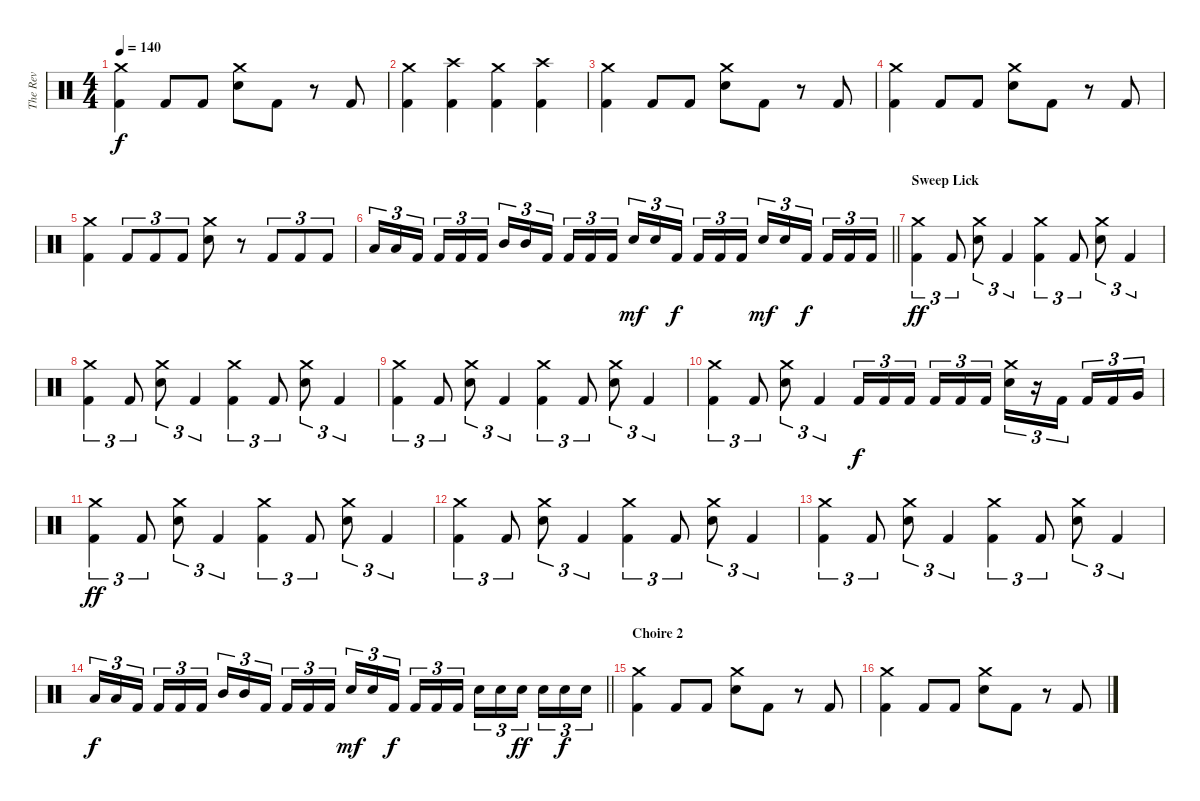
\track ("The Rev" "The Rev") {instrument percussion}
\staff {score}
\articulation defaults
\ts (4 4)
\tempo 140
\clef neutral
\ks c
("Crash medium (hit)" "Kick (hit) 2").4{dy f} "Kick (hit) 2".8 "Kick (hit) 2".8 ("Crash medium (hit)" "Snare (hit) 2").8 "Kick (hit) 2".8 r.8 "Kick (hit) 2".8 |
("Crash medium (hit)" "Kick (hit) 2").4 ("Crash high (hit)" "Kick (hit) 2").4 ("Crash medium (hit)" "Kick (hit) 2").4 ("Crash high (hit)" "Kick (hit) 2").4 |
("Crash medium (hit)" "Kick (hit) 2").4 "Kick (hit) 2".8 "Kick (hit) 2".8 ("Crash medium (hit)" "Snare (hit) 2").8 "Kick (hit) 2".8 r.8 "Kick (hit) 2".8 |
("Crash medium (hit)" "Kick (hit) 2").4 "Kick (hit) 2".8 "Kick (hit) 2".8 ("Crash medium (hit)" "Snare (hit) 2").8 "Kick (hit) 2".8 r.8 "Kick (hit) 2".8 |
("Crash medium (hit)" "Kick (hit) 2").4 "Kick (hit) 2".8{tu (3 2)} "Kick (hit) 2".8{tu (3 2)} "Kick (hit) 2".8{tu (3 2)} ("Crash medium (hit)" "Snare (hit) 2").8 r.8 "Kick (hit) 2".8{tu (3 2)} "Kick (hit) 2".8{tu (3 2)} "Kick (hit) 2".8{tu (3 2)} |
\barLineRight lightlight "Low Tom (hit)".16{tu (3 2)} "Low Tom (hit)".16{tu (3 2)} "Kick (hit) 2".16{tu (3 2) beam splitsecondary} "Kick (hit) 2".16{tu (3 2)} "Kick (hit) 2".16{tu (3 2)} "Kick (hit) 2".16{tu (3 2)} "Mid Tom (hit)".16{tu (3 2)} "Mid Tom (hit)".16{tu (3 2)} "Kick (hit) 2".16{tu (3 2) beam splitsecondary} "Kick (hit) 2".16{tu (3 2)} "Kick (hit) 2".16{tu (3 2)} "Kick (hit) 2".16{tu (3 2)} "Snare (hit) 2".16{tu (3 2) dy mf} "Snare (hit) 2".16{tu (3 2)} "Kick (hit) 2".16{tu (3 2) dy f beam splitsecondary} "Kick (hit) 2".16{tu (3 2)} "Kick (hit) 2".16{tu (3 2)} "Kick (hit) 2".16{tu (3 2)} "Snare (hit) 2".16{tu (3 2) dy mf} "Snare (hit) 2".16{tu (3 2)} "Kick (hit) 2".16{tu (3 2) dy f beam splitsecondary} "Kick (hit) 2".16{tu (3 2)} "Kick (hit) 2".16{tu (3 2)} "Kick (hit) 2".16{tu (3 2)}
|
\section ("" "Sweep Lick")
("Crash medium (hit)" "Kick (hit) 2").4{tu (3 2) dy ff} "Kick (hit) 2".8{tu (3 2)} ("Crash medium (hit)" "Snare (hit) 2").8{tu (3 2)} "Kick (hit) 2".4{tu (3 2)} ("Crash medium (hit)" "Kick (hit) 2").4{tu (3 2)} "Kick (hit) 2".8{tu (3 2)} ("Crash medium (hit)" "Snare (hit) 2").8{tu (3 2)} "Kick (hit) 2".4{tu (3 2)} |
("Crash medium (hit)" "Kick (hit) 2").4{tu (3 2)} "Kick (hit) 2".8{tu (3 2)} ("Crash medium (hit)" "Snare (hit) 2").8{tu (3 2)} "Kick (hit) 2".4{tu (3 2)} ("Crash medium (hit)" "Kick (hit) 2").4{tu (3 2)} "Kick (hit) 2".8{tu (3 2)} ("Crash medium (hit)" "Snare (hit) 2").8{tu (3 2)} "Kick (hit) 2".4{tu (3 2)} |
("Crash medium (hit)" "Kick (hit) 2").4{tu (3 2)} "Kick (hit) 2".8{tu (3 2)} ("Crash medium (hit)" "Snare (hit) 2").8{tu (3 2)} "Kick (hit) 2".4{tu (3 2)} ("Crash medium (hit)" "Kick (hit) 2").4{tu (3 2)} "Kick (hit) 2".8{tu (3 2)} ("Crash medium (hit)" "Snare (hit) 2").8{tu (3 2)} "Kick (hit) 2".4{tu (3 2)} |
("Crash medium (hit)" "Kick (hit) 2").4{tu (3 2)} "Kick (hit) 2".8{tu (3 2)} ("Crash medium (hit)" "Snare (hit) 2").8{tu (3 2)} "Kick (hit) 2".4{tu (3 2)} "Kick (hit) 2".16{tu (3 2) dy f} "Kick (hit) 2".16{tu (3 2)} "Kick (hit) 2".16{tu (3 2) beam splitsecondary} "Kick (hit) 2".16{tu (3 2)} "Kick (hit) 2".16{tu (3 2)} "Kick (hit) 2".16{tu (3 2)} ("Crash medium (hit)" "Snare (hit) 2").16{tu (3 2)} r.16{tu (3 2)} "Kick (hit) 2".16{tu (3 2) beam splitsecondary} "Kick (hit) 2".16{tu (3 2)} "Kick (hit) 2".16{tu (3 2)} "Very Low Tom (hit)".16{tu (3 2)} |
("Crash medium (hit)" "Kick (hit) 2").4{tu (3 2) dy ff} "Kick (hit) 2".8{tu (3 2)} ("Crash medium (hit)" "Snare (hit) 2").8{tu (3 2)} "Kick (hit) 2".4{tu (3 2)} ("Crash medium (hit)" "Kick (hit) 2").4{tu (3 2)} "Kick (hit) 2".8{tu (3 2)} ("Crash medium (hit)" "Snare (hit) 2").8{tu (3 2)} "Kick (hit) 2".4{tu (3 2)} |
("Crash medium (hit)" "Kick (hit) 2").4{tu (3 2)} "Kick (hit) 2".8{tu (3 2)} ("Crash medium (hit)" "Snare (hit) 2").8{tu (3 2)} "Kick (hit) 2".4{tu (3 2)} ("Crash medium (hit)" "Kick (hit) 2").4{tu (3 2)} "Kick (hit) 2".8{tu (3 2)} ("Crash medium (hit)" "Snare (hit) 2").8{tu (3 2)} "Kick (hit) 2".4{tu (3 2)} |
("Crash medium (hit)" "Kick (hit) 2").4{tu (3 2)} "Kick (hit) 2".8{tu (3 2)} ("Crash medium (hit)" "Snare (hit) 2").8{tu (3 2)} "Kick (hit) 2".4{tu (3 2)} ("Crash medium (hit)" "Kick (hit) 2").4{tu (3 2)} "Kick (hit) 2".8{tu (3 2)} ("Crash medium (hit)" "Snare (hit) 2").8{tu (3 2)} "Kick (hit) 2".4{tu (3 2)} |
\barLineRight lightlight "Low Tom (hit)".16{tu (3 2) dy f} "Low Tom (hit)".16{tu (3 2)} "Kick (hit) 2".16{tu (3 2) beam splitsecondary} "Kick (hit) 2".16{tu (3 2)} "Kick (hit) 2".16{tu (3 2)} "Kick (hit) 2".16{tu (3 2)} "Mid Tom (hit)".16{tu (3 2)} "Mid Tom (hit)".16{tu (3 2)} "Kick (hit) 2".16{tu (3 2) beam splitsecondary} "Kick (hit) 2".16{tu (3 2)} "Kick (hit) 2".16{tu (3 2)} "Kick (hit) 2".16{tu (3 2)} "Snare (hit) 2".16{tu (3 2) dy mf} "Snare (hit) 2".16{tu (3 2)} "Kick (hit) 2".16{tu (3 2) dy f beam splitsecondary} "Kick (hit) 2".16{tu (3 2)} "Kick (hit) 2".16{tu (3 2)} "Kick (hit) 2".16{tu (3 2)} "Snare (hit) 2".16{tu (3 2)} "Snare (hit) 2".16{tu (3 2)} "Snare (hit) 2".16{tu (3 2) dy ff beam splitsecondary} "Snare (hit) 2".16{tu (3 2)} "Snare (hit) 2".16{tu (3 2) dy f} "Snare (hit) 2".16{tu (3 2)}
|
\section ("" "Choire 2")
("Crash medium (hit)" "Kick (hit) 2").4 "Kick (hit) 2".8 "Kick (hit) 2".8 ("Crash medium (hit)" "Snare (hit) 2").8 "Kick (hit) 2".8 r.8 "Kick (hit) 2".8 |
("Crash medium (hit)" "Kick (hit) 2").4 "Kick (hit) 2".8 "Kick (hit) 2".8 ("Crash medium (hit)" "Snare (hit) 2").8 "Kick (hit) 2".8 r.8 "Kick (hit) 2".8
